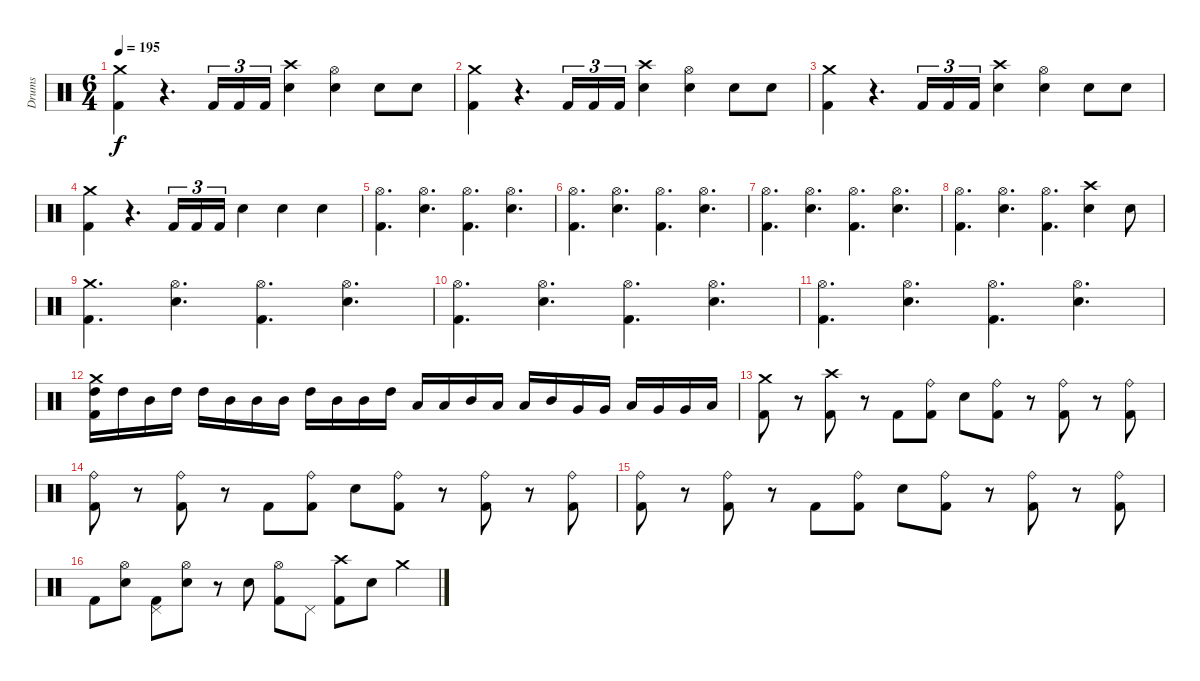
\track ("Drums" "Drums") {instrument percussion}
\staff {score}
\articulation defaults
\ts (6 4)
\tempo 195
\clef neutral
\ks c
("Crash medium (hit)" "Kick (hit) 2").4{dy f} r.4{d} "Kick (hit) 2".16{tu (3 2)} "Kick (hit) 2".16{tu (3 2)} "Kick (hit) 2".16{tu (3 2)} ("Crash high (hit)" "Electric Snare (hit)").4 ("Hi-Hat (open)" "Electric Snare (hit)").4 "Electric Snare (hit)".8 "Electric Snare (hit)".8 |
("Crash medium (hit)" "Kick (hit) 2").4 r.4{d} "Kick (hit) 2".16{tu (3 2)} "Kick (hit) 2".16{tu (3 2)} "Kick (hit) 2".16{tu (3 2)} ("Crash high (hit)" "Electric Snare (hit)").4 ("Hi-Hat (open)" "Electric Snare (hit)").4 "Electric Snare (hit)".8 "Electric Snare (hit)".8 |
("Crash medium (hit)" "Kick (hit) 2").4 r.4{d} "Kick (hit) 2".16{tu (3 2)} "Kick (hit) 2".16{tu (3 2)} "Kick (hit) 2".16{tu (3 2)} ("Crash high (hit)" "Electric Snare (hit)").4 ("Hi-Hat (open)" "Electric Snare (hit)").4 "Electric Snare (hit)".8 "Electric Snare (hit)".8 |
("Crash medium (hit)" "Kick (hit) 2").4 r.4{d} "Kick (hit) 2".16{tu (3 2)} "Kick (hit) 2".16{tu (3 2)} "Kick (hit) 2".16{tu (3 2)} "Electric Snare (hit)".4 "Electric Snare (hit)".4 "Electric Snare (hit)".4 |
("Hi-Hat (open)" "Kick (hit) 2").4{d} ("Hi-Hat (open)" "Electric Snare (hit)").4{d} ("Hi-Hat (open)" "Kick (hit) 2").4{d} ("Hi-Hat (open)" "Electric Snare (hit)").4{d} |
("Hi-Hat (open)" "Kick (hit) 2").4{d} ("Hi-Hat (open)" "Electric Snare (hit)").4{d} ("Hi-Hat (open)" "Kick (hit) 2").4{d} ("Hi-Hat (open)" "Electric Snare (hit)").4{d} |
("Hi-Hat (open)" "Kick (hit) 2").4{d} ("Hi-Hat (open)" "Electric Snare (hit)").4{d} ("Hi-Hat (open)" "Kick (hit) 2").4{d} ("Hi-Hat (open)" "Electric Snare (hit)").4{d} |
("Hi-Hat (open)" "Kick (hit) 2").4{d} ("Hi-Hat (open)" "Electric Snare (hit)").4{d} ("Hi-Hat (open)" "Kick (hit) 2").4{d} ("Crash high (hit)" "Electric Snare (hit)").4 "Electric Snare (hit)".8 |
("Crash medium (hit)" "Kick (hit) 2").4{d} ("Hi-Hat (open)" "Electric Snare (hit)").4{d} ("Hi-Hat (open)" "Kick (hit) 2").4{d} ("Hi-Hat (open)" "Electric Snare (hit)").4{d} |
("Hi-Hat (open)" "Kick (hit) 2").4{d} ("Hi-Hat (open)" "Electric Snare (hit)").4{d} ("Hi-Hat (open)" "Kick (hit) 2").4{d} ("Hi-Hat (open)" "Electric Snare (hit)").4{d} |
("Hi-Hat (open)" "Kick (hit) 2").4{d} ("Hi-Hat (open)" "Electric Snare (hit)").4{d} ("Hi-Hat (open)" "Kick (hit) 2").4{d} ("Hi-Hat (open)" "Electric Snare (hit)").4{d} |
("Crash medium (hit)" "High Tom (hit)" "Kick (hit) 2").16 "High Tom (hit)".16 "Mid Tom (hit)".16 "High Tom (hit)".16 "High Tom (hit)".16 "Mid Tom (hit)".16 "Mid Tom (hit)".16 "Mid Tom (hit)".16 "High Tom (hit)".16 "Mid Tom (hit)".16 "Mid Tom (hit)".16 "High Tom (hit)".16 "Low Tom (hit)".16 "Low Tom (hit)".16 "Mid Tom (hit)".16 "Low Tom (hit)".16 "Low Tom (hit)".16 "Mid Tom (hit)".16 "Very Low Tom (hit)".16 "Very Low Tom (hit)".16 "Low Tom (hit)".16 "Very Low Tom (hit)".16 "Very Low Tom (hit)".16 "Low Tom (hit)".16 |
("Crash medium (hit)" "Kick (hit) 2").8 r.8 ("Crash high (hit)" "Kick (hit) 2").8 r.8 "Kick (hit) 2".8 ("Ride (bell)" "Kick (hit) 2").8 "Electric Snare (hit)".8 ("Ride (bell)" "Kick (hit) 2").8 r.8 ("Ride (bell)" "Kick (hit) 2").8 r.8 ("Ride (bell)" "Kick (hit) 2").8 |
("Ride (bell)" "Kick (hit) 2").8 r.8 ("Ride (bell)" "Kick (hit) 2").8 r.8 "Kick (hit) 2".8 ("Ride (bell)" "Kick (hit) 2").8 "Electric Snare (hit)".8 ("Ride (bell)" "Kick (hit) 2").8 r.8 ("Ride (bell)" "Kick (hit) 2").8 r.8 ("Ride (bell)" "Kick (hit) 2").8 |
("Ride (bell)" "Kick (hit) 2").8 r.8 ("Ride (bell)" "Kick (hit) 2").8 r.8 "Kick (hit) 2".8 ("Ride (bell)" "Kick (hit) 2").8 "Electric Snare (hit)".8 ("Ride (bell)" "Kick (hit) 2").8 r.8 ("Ride (bell)" "Kick (hit) 2").8 r.8 ("Ride (bell)" "Kick (hit) 2").8 |
"Kick (hit) 2".8 ("Hi-Hat (open)" "Electric Snare (hit)").8 ("Pedal Hi-Hat (hit)" "Kick (hit) 2").8 ("Hi-Hat (open)" "Electric Snare (hit)").8 r.8 "Electric Snare (hit)".8 ("Hi-Hat (open)" "Kick (hit) 2").8 "Pedal Hi-Hat (hit)".8 ("Crash high (hit)" "Kick (hit) 2").8 "Electric Snare (hit)".8 "Crash medium (hit)".4
